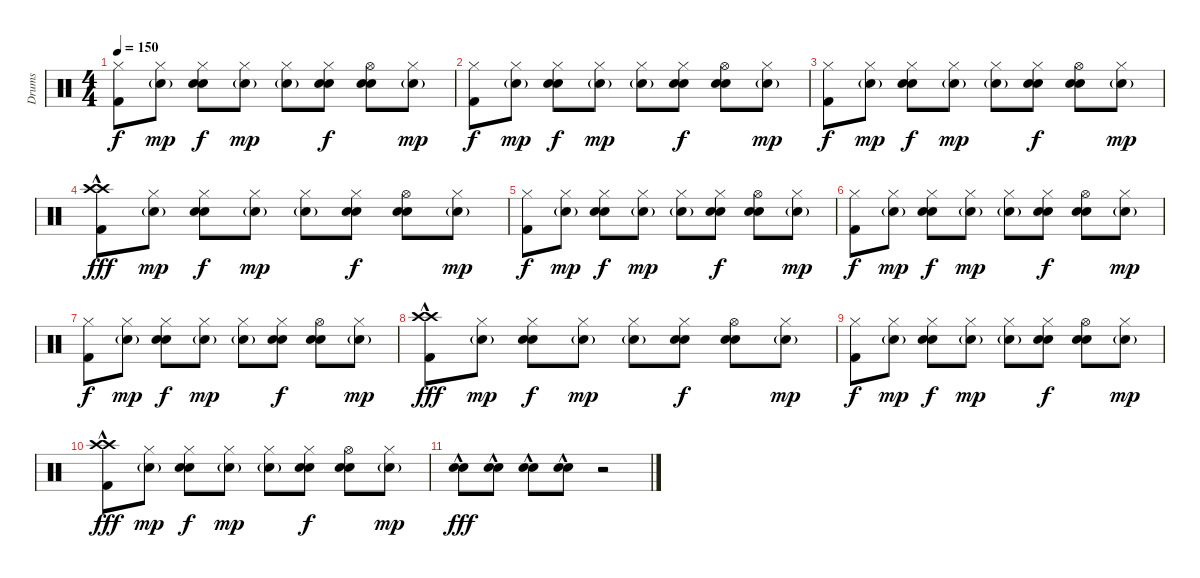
\track ("Drums" "Drums") {instrument percussion}
\staff {score}
\articulation defaults
\ts (4 4)
\tempo 150
\clef neutral
\ks c
("Hi-Hat (closed)" "Kick (hit) 2").8{dy f} ("Hi-Hat (closed)" "Electric Snare (hit)"{g}).8{dy mp} ("Hi-Hat (closed)" "Electric Snare (hit)" "Hand Clap (hit)").8{dy f} ("Hi-Hat (closed)" "Electric Snare (hit)"{g}).8{dy mp} ("Hi-Hat (closed)" "Electric Snare (hit)"{g}).8 ("Hi-Hat (closed)" "Electric Snare (hit)" "Hand Clap (hit)").8{dy f} ("Hi-Hat (open)" "Electric Snare (hit)" "Hand Clap (hit)").8 ("Hi-Hat (closed)" "Electric Snare (hit)"{g}).8{dy mp} |
("Hi-Hat (closed)" "Kick (hit) 2").8{dy f} ("Hi-Hat (closed)" "Electric Snare (hit)"{g}).8{dy mp} ("Hi-Hat (closed)" "Electric Snare (hit)" "Hand Clap (hit)").8{dy f} ("Hi-Hat (closed)" "Electric Snare (hit)"{g}).8{dy mp} ("Hi-Hat (closed)" "Electric Snare (hit)"{g}).8 ("Hi-Hat (closed)" "Electric Snare (hit)" "Hand Clap (hit)").8{dy f} ("Hi-Hat (open)" "Electric Snare (hit)" "Hand Clap (hit)").8 ("Hi-Hat (closed)" "Electric Snare (hit)"{g}).8{dy mp} |
("Hi-Hat (closed)" "Kick (hit) 2").8{dy f} ("Hi-Hat (closed)" "Electric Snare (hit)"{g}).8{dy mp} ("Hi-Hat (closed)" "Electric Snare (hit)" "Hand Clap (hit)").8{dy f} ("Hi-Hat (closed)" "Electric Snare (hit)"{g}).8{dy mp} ("Hi-Hat (closed)" "Electric Snare (hit)"{g}).8 ("Hi-Hat (closed)" "Electric Snare (hit)" "Hand Clap (hit)").8{dy f} ("Hi-Hat (open)" "Electric Snare (hit)" "Hand Clap (hit)").8 ("Hi-Hat (closed)" "Electric Snare (hit)"{g}).8{dy mp} |
("Crash high (hit)"{hac} "Crash high (hit)"{hac} "Kick (hit) 2").8{dy fff} ("Hi-Hat (closed)" "Electric Snare (hit)"{g}).8{dy mp} ("Hi-Hat (closed)" "Electric Snare (hit)" "Hand Clap (hit)").8{dy f} ("Hi-Hat (closed)" "Electric Snare (hit)"{g}).8{dy mp} ("Hi-Hat (closed)" "Electric Snare (hit)"{g}).8 ("Hi-Hat (closed)" "Electric Snare (hit)" "Hand Clap (hit)").8{dy f} ("Hi-Hat (open)" "Electric Snare (hit)" "Hand Clap (hit)").8 ("Hi-Hat (closed)" "Electric Snare (hit)"{g}).8{dy mp} |
("Hi-Hat (closed)" "Kick (hit) 2").8{dy f} ("Hi-Hat (closed)" "Electric Snare (hit)"{g}).8{dy mp} ("Hi-Hat (closed)" "Electric Snare (hit)" "Hand Clap (hit)").8{dy f} ("Hi-Hat (closed)" "Electric Snare (hit)"{g}).8{dy mp} ("Hi-Hat (closed)" "Electric Snare (hit)"{g}).8 ("Hi-Hat (closed)" "Electric Snare (hit)" "Hand Clap (hit)").8{dy f} ("Hi-Hat (open)" "Electric Snare (hit)" "Hand Clap (hit)").8 ("Hi-Hat (closed)" "Electric Snare (hit)"{g}).8{dy mp} |
("Hi-Hat (closed)" "Kick (hit) 2").8{dy f} ("Hi-Hat (closed)" "Electric Snare (hit)"{g}).8{dy mp} ("Hi-Hat (closed)" "Electric Snare (hit)" "Hand Clap (hit)").8{dy f} ("Hi-Hat (closed)" "Electric Snare (hit)"{g}).8{dy mp} ("Hi-Hat (closed)" "Electric Snare (hit)"{g}).8 ("Hi-Hat (closed)" "Electric Snare (hit)" "Hand Clap (hit)").8{dy f} ("Hi-Hat (open)" "Electric Snare (hit)" "Hand Clap (hit)").8 ("Hi-Hat (closed)" "Electric Snare (hit)"{g}).8{dy mp} |
("Hi-Hat (closed)" "Kick (hit) 2").8{dy f} ("Hi-Hat (closed)" "Electric Snare (hit)"{g}).8{dy mp} ("Hi-Hat (closed)" "Electric Snare (hit)" "Hand Clap (hit)").8{dy f} ("Hi-Hat (closed)" "Electric Snare (hit)"{g}).8{dy mp} ("Hi-Hat (closed)" "Electric Snare (hit)"{g}).8 ("Hi-Hat (closed)" "Electric Snare (hit)" "Hand Clap (hit)").8{dy f} ("Hi-Hat (open)" "Electric Snare (hit)" "Hand Clap (hit)").8 ("Hi-Hat (closed)" "Electric Snare (hit)"{g}).8{dy mp} |
("Crash high (hit)"{hac} "Crash high (hit)"{hac} "Kick (hit) 2").8{dy fff} ("Hi-Hat (closed)" "Electric Snare (hit)"{g}).8{dy mp} ("Hi-Hat (closed)" "Electric Snare (hit)" "Hand Clap (hit)").8{dy f} ("Hi-Hat (closed)" "Electric Snare (hit)"{g}).8{dy mp} ("Hi-Hat (closed)" "Electric Snare (hit)"{g}).8 ("Hi-Hat (closed)" "Electric Snare (hit)" "Hand Clap (hit)").8{dy f} ("Hi-Hat (open)" "Electric Snare (hit)" "Hand Clap (hit)").8 ("Hi-Hat (closed)" "Electric Snare (hit)"{g}).8{dy mp} |
("Hi-Hat (closed)" "Kick (hit) 2").8{dy f} ("Hi-Hat (closed)" "Electric Snare (hit)"{g}).8{dy mp} ("Hi-Hat (closed)" "Electric Snare (hit)" "Hand Clap (hit)").8{dy f} ("Hi-Hat (closed)" "Electric Snare (hit)"{g}).8{dy mp} ("Hi-Hat (closed)" "Electric Snare (hit)"{g}).8 ("Hi-Hat (closed)" "Electric Snare (hit)" "Hand Clap (hit)").8{dy f} ("Hi-Hat (open)" "Electric Snare (hit)" "Hand Clap (hit)").8 ("Hi-Hat (closed)" "Electric Snare (hit)"{g}).8{dy mp} |
("Crash high (hit)"{hac} "Crash high (hit)"{hac} "Kick (hit) 2").8{dy fff} ("Hi-Hat (closed)" "Electric Snare (hit)"{g}).8{dy mp} ("Hi-Hat (closed)" "Electric Snare (hit)" "Hand Clap (hit)").8{dy f} ("Hi-Hat (closed)" "Electric Snare (hit)"{g}).8{dy mp} ("Hi-Hat (closed)" "Electric Snare (hit)"{g}).8 ("Hi-Hat (closed)" "Electric Snare (hit)" "Hand Clap (hit)").8{dy f} ("Hi-Hat (open)" "Electric Snare (hit)" "Hand Clap (hit)").8 ("Hi-Hat (closed)" "Electric Snare (hit)"{g}).8{dy mp} |
("Snare (hit) 2"{hac} "Snare (hit) 2"{hac}).8{dy fff} ("Snare (hit) 2"{hac} "Snare (hit) 2"{hac}).8 ("Snare (hit) 2"{hac} "Snare (hit) 2"{hac}).8 ("Snare (hit) 2"{hac} "Snare (hit) 2"{hac}).8 r.2
